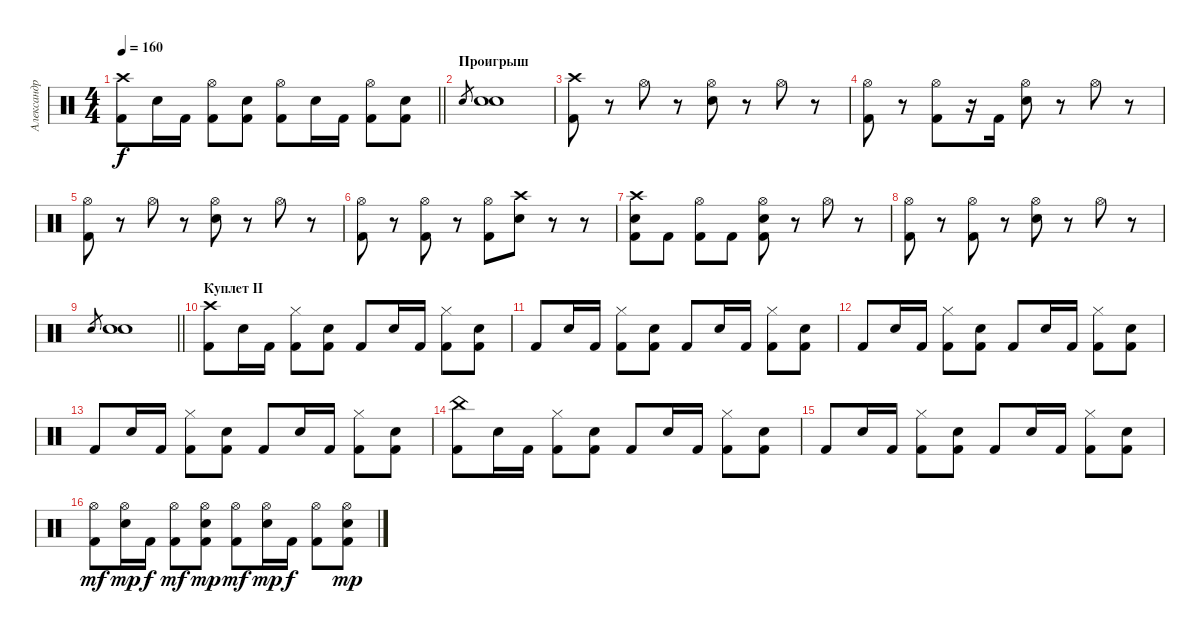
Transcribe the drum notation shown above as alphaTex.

\track ("Александр Карпухин" "Александр ") {instrument percussion}
\staff {score}
\articulation defaults
\ts (4 4)
\tempo 160
\clef neutral
\barLineRight lightlight
\ks c
("Crash high (hit)" "Kick (hit) 2").8{dy f} "Electric Snare (hit)".16 "Kick (hit) 2".16 ("Hi-Hat (open)" "Kick (hit) 2").8 ("Electric Snare (hit)" "Kick (hit) 2").8 ("Hi-Hat (open)" "Kick (hit) 2").8 "Electric Snare (hit)".16 "Kick (hit) 2".16 ("Hi-Hat (open)" "Kick (hit) 2").8 ("Electric Snare (hit)" "Kick (hit) 2").8 |
\section ("" "Проигрыш")
"Electric Snare (hit)".8{gr} ("Electric Snare (hit)" "Electric Snare (hit)").1 |
("Crash high (hit)" "Kick (hit) 2").8 r.8 "Hi-Hat (open)".8 r.8 ("Hi-Hat (open)" "Electric Snare (hit)").8 r.8 "Hi-Hat (open)".8 r.8 |
("Hi-Hat (open)" "Kick (hit) 2").8 r.8 ("Hi-Hat (open)" "Kick (hit) 2").8 r.16 "Kick (hit) 2".16 ("Hi-Hat (open)" "Electric Snare (hit)").8 r.8 "Hi-Hat (open)".8 r.8 |
("Hi-Hat (open)" "Kick (hit) 2").8 r.8 "Hi-Hat (open)".8 r.8 ("Hi-Hat (open)" "Electric Snare (hit)").8 r.8 "Hi-Hat (open)".8 r.8 |
("Hi-Hat (open)" "Kick (hit) 2").8 r.8 ("Hi-Hat (open)" "Kick (hit) 2").8 r.8 ("Hi-Hat (open)" "Kick (hit) 2").8 ("Crash high (hit)" "Electric Snare (hit)").8 r.8 r.8 |
("Crash high (hit)" "Electric Snare (hit)" "Kick (hit) 2").8 "Kick (hit) 2".8 ("Hi-Hat (open)" "Kick (hit) 2").8 "Kick (hit) 2".8 ("Hi-Hat (open)" "Electric Snare (hit)" "Kick (hit) 2").8 r.8 "Hi-Hat (open)".8 r.8 |
("Hi-Hat (open)" "Kick (hit) 2").8 r.8 ("Hi-Hat (open)" "Kick (hit) 2").8 r.8 ("Hi-Hat (open)" "Electric Snare (hit)").8 r.8 "Hi-Hat (open)".8 r.8 |
\barLineRight lightlight "Electric Snare (hit)".8{gr}
("Electric Snare (hit)" "Electric Snare (hit)").1 |
\section ("" "Куплет II")
("Crash high (hit)" "Kick (hit) 2").8 "Electric Snare (hit)".16 "Kick (hit) 2".16 ("Hi-Hat (closed)" "Kick (hit) 2").8 ("Electric Snare (hit)" "Kick (hit) 2").8 "Kick (hit) 2".8 "Electric Snare (hit)".16 "Kick (hit) 2".16 ("Hi-Hat (closed)" "Kick (hit) 2").8 ("Electric Snare (hit)" "Kick (hit) 2").8 |
"Kick (hit) 2".8 "Electric Snare (hit)".16 "Kick (hit) 2".16 ("Hi-Hat (closed)" "Kick (hit) 2").8 ("Electric Snare (hit)" "Kick (hit) 2").8 "Kick (hit) 2".8 "Electric Snare (hit)".16 "Kick (hit) 2".16 ("Hi-Hat (closed)" "Kick (hit) 2").8 ("Electric Snare (hit)" "Kick (hit) 2").8 |
"Kick (hit) 2".8 "Electric Snare (hit)".16 "Kick (hit) 2".16 ("Hi-Hat (closed)" "Kick (hit) 2").8 ("Electric Snare (hit)" "Kick (hit) 2").8 "Kick (hit) 2".8 "Electric Snare (hit)".16 "Kick (hit) 2".16 ("Hi-Hat (closed)" "Kick (hit) 2").8 ("Electric Snare (hit)" "Kick (hit) 2").8 |
"Kick (hit) 2".8 "Electric Snare (hit)".16 "Kick (hit) 2".16 ("Hi-Hat (closed)" "Kick (hit) 2").8 ("Electric Snare (hit)" "Kick (hit) 2").8 "Kick (hit) 2".8 "Electric Snare (hit)".16 "Kick (hit) 2".16 ("Hi-Hat (closed)" "Kick (hit) 2").8 ("Electric Snare (hit)" "Kick (hit) 2").8 |
("China (hit)" "Kick (hit) 2").8 "Electric Snare (hit)".16 "Kick (hit) 2".16 ("Hi-Hat (closed)" "Kick (hit) 2").8 ("Electric Snare (hit)" "Kick (hit) 2").8 "Kick (hit) 2".8 "Electric Snare (hit)".16 "Kick (hit) 2".16 ("Hi-Hat (closed)" "Kick (hit) 2").8 ("Electric Snare (hit)" "Kick (hit) 2").8 |
"Kick (hit) 2".8 "Electric Snare (hit)".16 "Kick (hit) 2".16 ("Hi-Hat (closed)" "Kick (hit) 2").8 ("Electric Snare (hit)" "Kick (hit) 2").8 "Kick (hit) 2".8 "Electric Snare (hit)".16 "Kick (hit) 2".16 ("Hi-Hat (closed)" "Kick (hit) 2").8 ("Electric Snare (hit)" "Kick (hit) 2").8 |
("Hi-Hat (open)" "Kick (hit) 2").8{dy mf} ("Hi-Hat (open)" "Electric Snare (hit)").16{dy mp} "Kick (hit) 2".16{dy f} ("Hi-Hat (open)" "Kick (hit) 2").8{dy mf} ("Hi-Hat (open)" "Electric Snare (hit)" "Kick (hit) 2").8{dy mp} ("Hi-Hat (open)" "Kick (hit) 2").8{dy mf} ("Hi-Hat (open)" "Electric Snare (hit)").16{dy mp} "Kick (hit) 2".16{dy f} ("Hi-Hat (open)" "Kick (hit) 2").8 ("Hi-Hat (open)" "Electric Snare (hit)" "Kick (hit) 2").8{dy mp}
